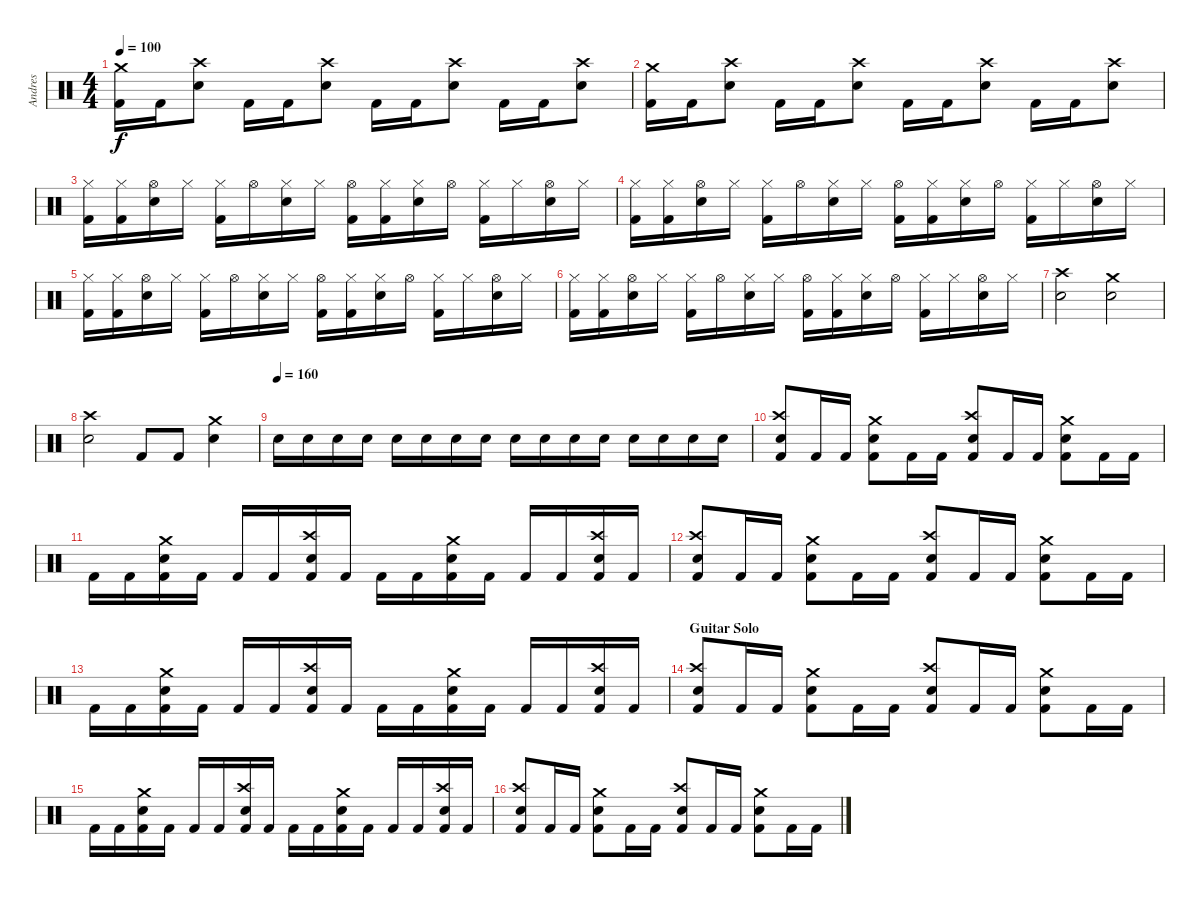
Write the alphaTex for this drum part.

\track ("Andres" "Andres") {instrument percussion}
\staff {score}
\articulation defaults
\ts (4 4)
\tempo 100
\clef neutral
\ks c
("Crash medium (hit)" "Kick (hit) 2").16{dy f} "Kick (hit) 2".16 ("Crash high (hit)" "Electric Snare (hit)").8 "Kick (hit) 2".16 "Kick (hit) 2".16 ("Crash high (hit)" "Electric Snare (hit)").8 "Kick (hit) 2".16 "Kick (hit) 2".16 ("Crash high (hit)" "Electric Snare (hit)").8 "Kick (hit) 2".16 "Kick (hit) 2".16 ("Crash high (hit)" "Electric Snare (hit)").8 |
("Crash medium (hit)" "Kick (hit) 2").16 "Kick (hit) 2".16 ("Crash high (hit)" "Electric Snare (hit)").8 "Kick (hit) 2".16 "Kick (hit) 2".16 ("Crash high (hit)" "Electric Snare (hit)").8 "Kick (hit) 2".16 "Kick (hit) 2".16 ("Crash high (hit)" "Electric Snare (hit)").8 "Kick (hit) 2".16 "Kick (hit) 2".16 ("Crash high (hit)" "Electric Snare (hit)").8 |
("Hi-Hat (closed)" "Kick (hit) 2").16 ("Hi-Hat (closed)" "Kick (hit) 2").16 ("Hi-Hat (open)" "Electric Snare (hit)").16 "Hi-Hat (closed)".16 ("Hi-Hat (closed)" "Kick (hit) 2").16 "Hi-Hat (open)".16 ("Hi-Hat (closed)" "Electric Snare (hit)").16 "Hi-Hat (closed)".16 ("Hi-Hat (open)" "Kick (hit) 2").16 ("Hi-Hat (closed)" "Kick (hit) 2").16 ("Hi-Hat (closed)" "Electric Snare (hit)").16 "Hi-Hat (open)".16 ("Hi-Hat (closed)" "Kick (hit) 2").16 "Hi-Hat (closed)".16 ("Hi-Hat (open)" "Electric Snare (hit)").16 "Hi-Hat (closed)".16 |
("Hi-Hat (closed)" "Kick (hit) 2").16 ("Hi-Hat (closed)" "Kick (hit) 2").16 ("Hi-Hat (open)" "Electric Snare (hit)").16 "Hi-Hat (closed)".16 ("Hi-Hat (closed)" "Kick (hit) 2").16 "Hi-Hat (open)".16 ("Hi-Hat (closed)" "Electric Snare (hit)").16 "Hi-Hat (closed)".16 ("Hi-Hat (open)" "Kick (hit) 2").16 ("Hi-Hat (closed)" "Kick (hit) 2").16 ("Hi-Hat (closed)" "Electric Snare (hit)").16 "Hi-Hat (open)".16 ("Hi-Hat (closed)" "Kick (hit) 2").16 "Hi-Hat (closed)".16 ("Hi-Hat (open)" "Electric Snare (hit)").16 "Hi-Hat (closed)".16 |
("Hi-Hat (closed)" "Kick (hit) 2").16 ("Hi-Hat (closed)" "Kick (hit) 2").16 ("Hi-Hat (open)" "Electric Snare (hit)").16 "Hi-Hat (closed)".16 ("Hi-Hat (closed)" "Kick (hit) 2").16 "Hi-Hat (open)".16 ("Hi-Hat (closed)" "Electric Snare (hit)").16 "Hi-Hat (closed)".16 ("Hi-Hat (open)" "Kick (hit) 2").16 ("Hi-Hat (closed)" "Kick (hit) 2").16 ("Hi-Hat (closed)" "Electric Snare (hit)").16 "Hi-Hat (open)".16 ("Hi-Hat (closed)" "Kick (hit) 2").16 "Hi-Hat (closed)".16 ("Hi-Hat (open)" "Electric Snare (hit)").16 "Hi-Hat (closed)".16 |
("Hi-Hat (closed)" "Kick (hit) 2").16 ("Hi-Hat (closed)" "Kick (hit) 2").16 ("Hi-Hat (open)" "Electric Snare (hit)").16 "Hi-Hat (closed)".16 ("Hi-Hat (closed)" "Kick (hit) 2").16 "Hi-Hat (open)".16 ("Hi-Hat (closed)" "Electric Snare (hit)").16 "Hi-Hat (closed)".16 ("Hi-Hat (open)" "Kick (hit) 2").16 ("Hi-Hat (closed)" "Kick (hit) 2").16 ("Hi-Hat (closed)" "Electric Snare (hit)").16 "Hi-Hat (open)".16 ("Hi-Hat (closed)" "Kick (hit) 2").16 "Hi-Hat (closed)".16 ("Hi-Hat (open)" "Electric Snare (hit)").16 "Hi-Hat (closed)".16 |
("Crash high (hit)" "Electric Snare (hit)").2 ("Crash medium (hit)" "Electric Snare (hit)").2 |
("Crash high (hit)" "Electric Snare (hit)").2 "Kick (hit) 2".8 "Kick (hit) 2".8 ("Crash medium (hit)" "Electric Snare (hit)").4 |
\tempo (160)
"Electric Snare (hit)".16{volume 0} "Electric Snare (hit)".16{volume 16} "Electric Snare (hit)".16 "Electric Snare (hit)".16 "Electric Snare (hit)".16 "Electric Snare (hit)".16 "Electric Snare (hit)".16 "Electric Snare (hit)".16 "Electric Snare (hit)".16 "Electric Snare (hit)".16 "Electric Snare (hit)".16 "Electric Snare (hit)".16 "Electric Snare (hit)".16 "Electric Snare (hit)".16 "Electric Snare (hit)".16 "Electric Snare (hit)".16 |
("Crash high (hit)" "Electric Snare (hit)" "Kick (hit) 2").8 "Kick (hit) 2".16 "Kick (hit) 2".16 ("Crash medium (hit)" "Electric Snare (hit)" "Kick (hit) 2").8 "Kick (hit) 2".16 "Kick (hit) 2".16 ("Crash high (hit)" "Electric Snare (hit)" "Kick (hit) 2").8 "Kick (hit) 2".16 "Kick (hit) 2".16 ("Crash medium (hit)" "Electric Snare (hit)" "Kick (hit) 2").8 "Kick (hit) 2".16 "Kick (hit) 2".16 |
"Kick (hit) 2".16 "Kick (hit) 2".16 ("Crash medium (hit)" "Electric Snare (hit)" "Kick (hit) 2").16 "Kick (hit) 2".16 "Kick (hit) 2".16 "Kick (hit) 2".16 ("Crash high (hit)" "Electric Snare (hit)" "Kick (hit) 2").16 "Kick (hit) 2".16 "Kick (hit) 2".16 "Kick (hit) 2".16 ("Crash medium (hit)" "Electric Snare (hit)" "Kick (hit) 2").16 "Kick (hit) 2".16 "Kick (hit) 2".16 "Kick (hit) 2".16 ("Crash high (hit)" "Electric Snare (hit)" "Kick (hit) 2").16 "Kick (hit) 2".16 |
("Crash high (hit)" "Electric Snare (hit)" "Kick (hit) 2").8 "Kick (hit) 2".16 "Kick (hit) 2".16 ("Crash medium (hit)" "Electric Snare (hit)" "Kick (hit) 2").8 "Kick (hit) 2".16 "Kick (hit) 2".16 ("Crash high (hit)" "Electric Snare (hit)" "Kick (hit) 2").8 "Kick (hit) 2".16 "Kick (hit) 2".16 ("Crash medium (hit)" "Electric Snare (hit)" "Kick (hit) 2").8 "Kick (hit) 2".16 "Kick (hit) 2".16 |
"Kick (hit) 2".16 "Kick (hit) 2".16 ("Crash medium (hit)" "Electric Snare (hit)" "Kick (hit) 2").16 "Kick (hit) 2".16 "Kick (hit) 2".16 "Kick (hit) 2".16 ("Crash high (hit)" "Electric Snare (hit)" "Kick (hit) 2").16 "Kick (hit) 2".16 "Kick (hit) 2".16 "Kick (hit) 2".16 ("Crash medium (hit)" "Electric Snare (hit)" "Kick (hit) 2").16 "Kick (hit) 2".16 "Kick (hit) 2".16 "Kick (hit) 2".16 ("Crash high (hit)" "Electric Snare (hit)" "Kick (hit) 2").16 "Kick (hit) 2".16 |
\section ("" "Guitar Solo")
("Crash high (hit)" "Electric Snare (hit)" "Kick (hit) 2").8 "Kick (hit) 2".16 "Kick (hit) 2".16 ("Crash medium (hit)" "Electric Snare (hit)" "Kick (hit) 2").8 "Kick (hit) 2".16 "Kick (hit) 2".16 ("Crash high (hit)" "Electric Snare (hit)" "Kick (hit) 2").8 "Kick (hit) 2".16 "Kick (hit) 2".16 ("Crash medium (hit)" "Electric Snare (hit)" "Kick (hit) 2").8 "Kick (hit) 2".16 "Kick (hit) 2".16 |
"Kick (hit) 2".16 "Kick (hit) 2".16 ("Crash medium (hit)" "Electric Snare (hit)" "Kick (hit) 2").16 "Kick (hit) 2".16 "Kick (hit) 2".16 "Kick (hit) 2".16 ("Crash high (hit)" "Electric Snare (hit)" "Kick (hit) 2").16 "Kick (hit) 2".16 "Kick (hit) 2".16 "Kick (hit) 2".16 ("Crash medium (hit)" "Electric Snare (hit)" "Kick (hit) 2").16 "Kick (hit) 2".16 "Kick (hit) 2".16 "Kick (hit) 2".16 ("Crash high (hit)" "Electric Snare (hit)" "Kick (hit) 2").16 "Kick (hit) 2".16 |
("Crash high (hit)" "Electric Snare (hit)" "Kick (hit) 2").8 "Kick (hit) 2".16 "Kick (hit) 2".16 ("Crash medium (hit)" "Electric Snare (hit)" "Kick (hit) 2").8 "Kick (hit) 2".16 "Kick (hit) 2".16 ("Crash high (hit)" "Electric Snare (hit)" "Kick (hit) 2").8 "Kick (hit) 2".16 "Kick (hit) 2".16 ("Crash medium (hit)" "Electric Snare (hit)" "Kick (hit) 2").8 "Kick (hit) 2".16 "Kick (hit) 2".16
